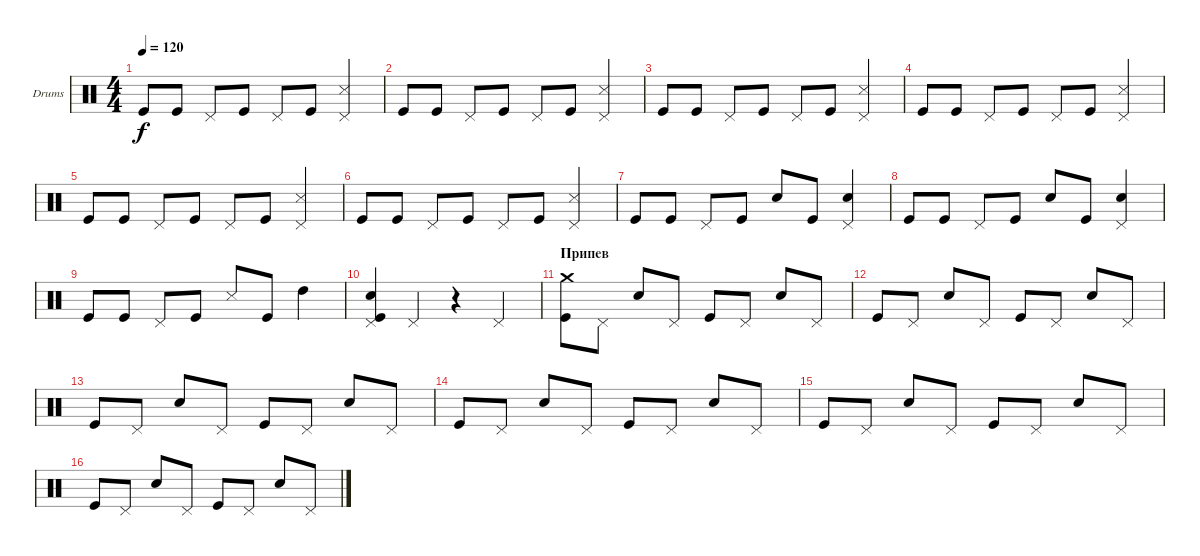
\defaultSystemsLayout 4
\bracketExtendMode groupsimilarinstruments
\firstSystemTrackNameOrientation horizontal
\otherSystemsTrackNameOrientation horizontal
\track ("Е. Кулаков" "Drums") {instrument percussion}
\staff {score}
\articulation defaults
\ts (4 4)
\tempo 120
\clef neutral
\ks c "Kick (hit)".8{dy f} "Kick (hit)".8 "Pedal Hi-Hat (hit)".8 "Kick (hit)".8 "Pedal Hi-Hat (hit)".8 "Kick (hit)".8
("Pedal Hi-Hat (hit)" "Snare (side stick) 3").4 |
"Kick (hit)".8 "Kick (hit)".8 "Pedal Hi-Hat (hit)".8 "Kick (hit)".8 "Pedal Hi-Hat (hit)".8 "Kick (hit)".8 ("Pedal Hi-Hat (hit)" "Snare (side stick) 3").4 |
"Kick (hit)".8 "Kick (hit)".8 "Pedal Hi-Hat (hit)".8 "Kick (hit)".8 "Pedal Hi-Hat (hit)".8 "Kick (hit)".8 ("Pedal Hi-Hat (hit)" "Snare (side stick) 3").4 |
"Kick (hit)".8 "Kick (hit)".8 "Pedal Hi-Hat (hit)".8 "Kick (hit)".8 "Pedal Hi-Hat (hit)".8 "Kick (hit)".8 ("Pedal Hi-Hat (hit)" "Snare (side stick) 3").4 |
"Kick (hit)".8 "Kick (hit)".8 "Pedal Hi-Hat (hit)".8 "Kick (hit)".8 "Pedal Hi-Hat (hit)".8 "Kick (hit)".8 ("Pedal Hi-Hat (hit)" "Snare (side stick) 3").4 |
"Kick (hit)".8 "Kick (hit)".8 "Pedal Hi-Hat (hit)".8 "Kick (hit)".8 "Pedal Hi-Hat (hit)".8 "Kick (hit)".8 ("Pedal Hi-Hat (hit)" "Snare (side stick) 3").4 |
"Kick (hit)".8 "Kick (hit)".8 "Pedal Hi-Hat (hit)".8 "Kick (hit)".8 "Snare (hit) 2".8 "Kick (hit)".8 ("Snare (hit) 2" "Pedal Hi-Hat (hit)").4 |
"Kick (hit)".8 "Kick (hit)".8 "Pedal Hi-Hat (hit)".8 "Kick (hit)".8 "Snare (hit) 2".8 "Kick (hit)".8 ("Snare (hit) 2" "Pedal Hi-Hat (hit)").4 |
"Kick (hit)".8 "Kick (hit)".8 "Pedal Hi-Hat (hit)".8 "Kick (hit)".8 "Snare (side stick) 3".8 "Kick (hit)".8 "High Tom (hit)".4 |
("Kick (hit)" "Snare (hit) 2" "Pedal Hi-Hat (hit)").4 "Pedal Hi-Hat (hit)".4 r.4 "Pedal Hi-Hat (hit)".4 |
\section ("" "Припев")
("Kick (hit)" "Crash medium (hit)").8 "Pedal Hi-Hat (hit)".8 "Snare (hit) 2".8 "Pedal Hi-Hat (hit)".8 "Kick (hit)".8 "Pedal Hi-Hat (hit)".8 "Snare (hit) 2".8 "Pedal Hi-Hat (hit)".8 |
"Kick (hit)".8 "Pedal Hi-Hat (hit)".8 "Snare (hit) 2".8 "Pedal Hi-Hat (hit)".8 "Kick (hit)".8 "Pedal Hi-Hat (hit)".8 "Snare (hit) 2".8 "Pedal Hi-Hat (hit)".8 |
"Kick (hit)".8 "Pedal Hi-Hat (hit)".8 "Snare (hit) 2".8 "Pedal Hi-Hat (hit)".8 "Kick (hit)".8 "Pedal Hi-Hat (hit)".8 "Snare (hit) 2".8 "Pedal Hi-Hat (hit)".8 |
"Kick (hit)".8 "Pedal Hi-Hat (hit)".8 "Snare (hit) 2".8 "Pedal Hi-Hat (hit)".8 "Kick (hit)".8 "Pedal Hi-Hat (hit)".8 "Snare (hit) 2".8 "Pedal Hi-Hat (hit)".8 |
"Kick (hit)".8 "Pedal Hi-Hat (hit)".8 "Snare (hit) 2".8 "Pedal Hi-Hat (hit)".8 "Kick (hit)".8 "Pedal Hi-Hat (hit)".8 "Snare (hit) 2".8 "Pedal Hi-Hat (hit)".8 |
"Kick (hit)".8 "Pedal Hi-Hat (hit)".8 "Snare (hit) 2".8 "Pedal Hi-Hat (hit)".8 "Kick (hit)".8 "Pedal Hi-Hat (hit)".8 "Snare (hit) 2".8 "Pedal Hi-Hat (hit)".8
